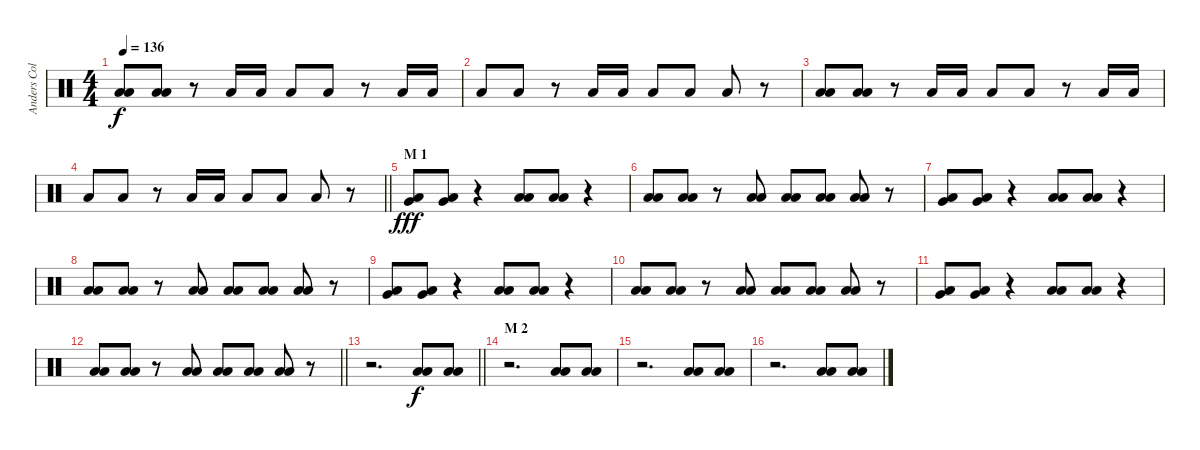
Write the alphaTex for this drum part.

\track ("Anders Colsefni" "Anders Col") {instrument percussion}
\staff {score}
\articulation defaults
\ts (4 4)
\tempo 136
\clef neutral
\ks c
("Low Floor Tom (hit)" "Low Floor Tom (hit)").8{dy f} ("Low Floor Tom (hit)" "Low Floor Tom (hit)").8 r.8 "Low Floor Tom (hit)".16 "Low Floor Tom (hit)".16 "Low Floor Tom (hit)".8 "Low Floor Tom (hit)".8 r.8 "Low Floor Tom (hit)".16 "Low Floor Tom (hit)".16 |
"Low Floor Tom (hit)".8 "Low Floor Tom (hit)".8 r.8 "Low Floor Tom (hit)".16 "Low Floor Tom (hit)".16 "Low Floor Tom (hit)".8 "Low Floor Tom (hit)".8 "Low Floor Tom (hit)".8 r.8 |
("Low Floor Tom (hit)" "Low Floor Tom (hit)").8 ("Low Floor Tom (hit)" "Low Floor Tom (hit)").8 r.8 "Low Floor Tom (hit)".16 "Low Floor Tom (hit)".16 "Low Floor Tom (hit)".8 "Low Floor Tom (hit)".8 r.8 "Low Floor Tom (hit)".16 "Low Floor Tom (hit)".16 |
\barLineRight lightlight "Low Floor Tom (hit)".8 "Low Floor Tom (hit)".8
r.8 "Low Floor Tom (hit)".16 "Low Floor Tom (hit)".16 "Low Floor Tom (hit)".8 "Low Floor Tom (hit)".8 "Low Floor Tom (hit)".8 r.8 |
\section ("" "M 1")
("Very Low Tom (hit)" "Low Floor Tom (hit)").8{dy fff} ("Very Low Tom (hit)" "Low Floor Tom (hit)").8 r.4 ("Low Floor Tom (hit)" "Low Floor Tom (hit)").8 ("Low Floor Tom (hit)" "Low Floor Tom (hit)").8 r.4 |
("Low Floor Tom (hit)" "Low Floor Tom (hit)").8 ("Low Floor Tom (hit)" "Low Floor Tom (hit)").8 r.8 ("Low Floor Tom (hit)" "Low Floor Tom (hit)").8 ("Low Floor Tom (hit)" "Low Floor Tom (hit)").8 ("Low Floor Tom (hit)" "Low Floor Tom (hit)").8 ("Low Floor Tom (hit)" "Low Floor Tom (hit)").8 r.8 |
("Very Low Tom (hit)" "Low Floor Tom (hit)").8 ("Very Low Tom (hit)" "Low Floor Tom (hit)").8 r.4 ("Low Floor Tom (hit)" "Low Floor Tom (hit)").8 ("Low Floor Tom (hit)" "Low Floor Tom (hit)").8 r.4 |
("Low Floor Tom (hit)" "Low Floor Tom (hit)").8 ("Low Floor Tom (hit)" "Low Floor Tom (hit)").8 r.8 ("Low Floor Tom (hit)" "Low Floor Tom (hit)").8 ("Low Floor Tom (hit)" "Low Floor Tom (hit)").8 ("Low Floor Tom (hit)" "Low Floor Tom (hit)").8 ("Low Floor Tom (hit)" "Low Floor Tom (hit)").8 r.8 |
("Very Low Tom (hit)" "Low Floor Tom (hit)").8 ("Very Low Tom (hit)" "Low Floor Tom (hit)").8 r.4 ("Low Floor Tom (hit)" "Low Floor Tom (hit)").8 ("Low Floor Tom (hit)" "Low Floor Tom (hit)").8 r.4 |
("Low Floor Tom (hit)" "Low Floor Tom (hit)").8 ("Low Floor Tom (hit)" "Low Floor Tom (hit)").8 r.8 ("Low Floor Tom (hit)" "Low Floor Tom (hit)").8 ("Low Floor Tom (hit)" "Low Floor Tom (hit)").8 ("Low Floor Tom (hit)" "Low Floor Tom (hit)").8 ("Low Floor Tom (hit)" "Low Floor Tom (hit)").8 r.8 |
("Very Low Tom (hit)" "Low Floor Tom (hit)").8 ("Very Low Tom (hit)" "Low Floor Tom (hit)").8 r.4 ("Low Floor Tom (hit)" "Low Floor Tom (hit)").8 ("Low Floor Tom (hit)" "Low Floor Tom (hit)").8 r.4 |
\barLineRight lightlight
("Low Floor Tom (hit)" "Low Floor Tom (hit)").8 ("Low Floor Tom (hit)" "Low Floor Tom (hit)").8 r.8 ("Low Floor Tom (hit)" "Low Floor Tom (hit)").8 ("Low Floor Tom (hit)" "Low Floor Tom (hit)").8 ("Low Floor Tom (hit)" "Low Floor Tom (hit)").8 ("Low Floor Tom (hit)" "Low Floor Tom (hit)").8 r.8 |
\barLineRight lightlight
r.2{d} ("Low Floor Tom (hit)" "Low Floor Tom (hit)").8{dy f} ("Low Floor Tom (hit)" "Low Floor Tom (hit)").8 |
\section ("" "M 2")
r.2{d} ("Low Floor Tom (hit)" "Low Floor Tom (hit)").8 ("Low Floor Tom (hit)" "Low Floor Tom (hit)").8 |
r.2{d} ("Low Floor Tom (hit)" "Low Floor Tom (hit)").8 ("Low Floor Tom (hit)" "Low Floor Tom (hit)").8 |
r.2{d} ("Low Floor Tom (hit)" "Low Floor Tom (hit)").8 ("Low Floor Tom (hit)" "Low Floor Tom (hit)").8
